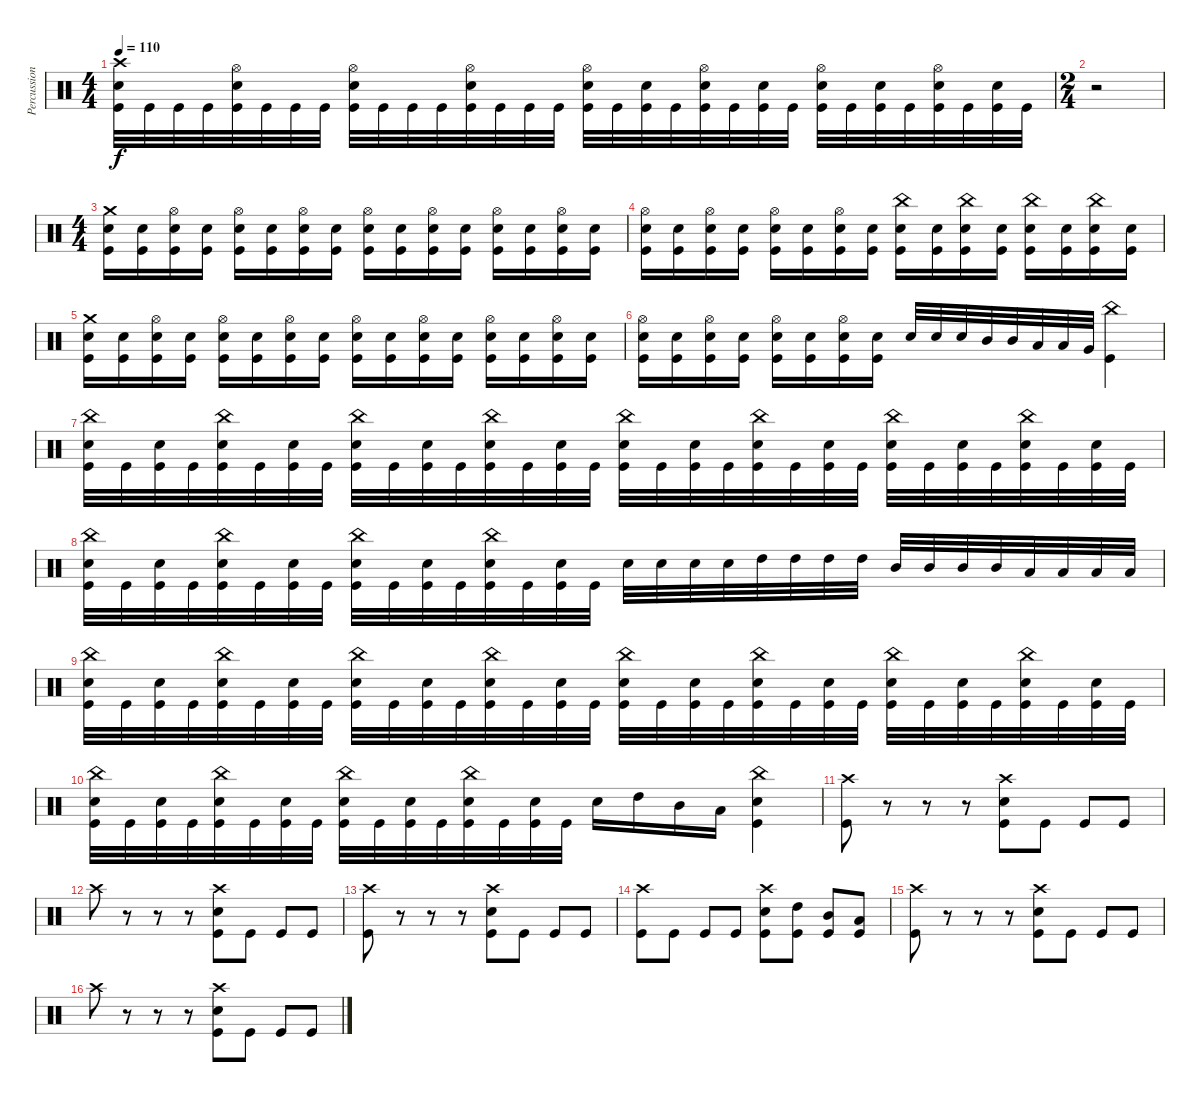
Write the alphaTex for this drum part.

\track ("Percussion" "Percussion") {instrument percussion}
\staff {score}
\articulation defaults
\ts (4 4)
\tempo 110
\clef neutral
\ks c
("Crash high (hit)" "Snare (hit) 2" "Kick (hit)").32{dy f} "Kick (hit)".32 "Kick (hit)".32 "Kick (hit)".32 ("Hi-Hat (open)" "Snare (hit) 2" "Kick (hit)").32 "Kick (hit)".32 "Kick (hit)".32 "Kick (hit)".32 ("Hi-Hat (open)" "Snare (hit) 2" "Kick (hit)").32 "Kick (hit)".32 "Kick (hit)".32 "Kick (hit)".32 ("Hi-Hat (open)" "Snare (hit) 2" "Kick (hit)").32 "Kick (hit)".32 "Kick (hit)".32 "Kick (hit)".32 ("Hi-Hat (open)" "Snare (hit) 2" "Kick (hit)").32 "Kick (hit)".32 ("Snare (hit) 2" "Kick (hit)").32 "Kick (hit)".32 ("Hi-Hat (open)" "Snare (hit) 2" "Kick (hit)").32 "Kick (hit)".32 ("Snare (hit) 2" "Kick (hit)").32 "Kick (hit)".32 ("Hi-Hat (open)" "Snare (hit) 2" "Kick (hit)").32 "Kick (hit)".32 ("Snare (hit) 2" "Kick (hit)").32 "Kick (hit)".32 ("Hi-Hat (open)" "Snare (hit) 2" "Kick (hit)").32 "Kick (hit)".32 ("Snare (hit) 2" "Kick (hit)").32 "Kick (hit)".32 |
\ts (2 4)
r.2 |
\ts (4 4)
("Crash medium (hit)" "Snare (hit) 2" "Kick (hit)").16 ("Snare (hit) 2" "Kick (hit)").16 ("Hi-Hat (open)" "Snare (hit) 2" "Kick (hit)").16 ("Snare (hit) 2" "Kick (hit)").16 ("Hi-Hat (open)" "Snare (hit) 2" "Kick (hit)").16 ("Snare (hit) 2" "Kick (hit)").16 ("Hi-Hat (open)" "Snare (hit) 2" "Kick (hit)").16 ("Snare (hit) 2" "Kick (hit)").16 ("Hi-Hat (open)" "Snare (hit) 2" "Kick (hit)").16 ("Snare (hit) 2" "Kick (hit)").16 ("Hi-Hat (open)" "Snare (hit) 2" "Kick (hit)").16 ("Snare (hit) 2" "Kick (hit)").16 ("Hi-Hat (open)" "Snare (hit) 2" "Kick (hit)").16 ("Snare (hit) 2" "Kick (hit)").16 ("Hi-Hat (open)" "Snare (hit) 2" "Kick (hit)").16 ("Snare (hit) 2" "Kick (hit)").16 |
("Hi-Hat (open)" "Snare (hit) 2" "Kick (hit)").16 ("Snare (hit) 2" "Kick (hit)").16 ("Hi-Hat (open)" "Snare (hit) 2" "Kick (hit)").16 ("Snare (hit) 2" "Kick (hit)").16 ("Hi-Hat (open)" "Snare (hit) 2" "Kick (hit)").16 ("Snare (hit) 2" "Kick (hit)").16 ("Hi-Hat (open)" "Snare (hit) 2" "Kick (hit)").16 ("Snare (hit) 2" "Kick (hit)").16 ("China (hit)" "Snare (hit) 2" "Kick (hit)").16 ("Snare (hit) 2" "Kick (hit)").16 ("China (hit)" "Snare (hit) 2" "Kick (hit)").16 ("Snare (hit) 2" "Kick (hit)").16 ("China (hit)" "Snare (hit) 2" "Kick (hit)").16 ("Snare (hit) 2" "Kick (hit)").16 ("China (hit)" "Snare (hit) 2" "Kick (hit)").16 ("Snare (hit) 2" "Kick (hit)").16 |
("Crash medium (hit)" "Snare (hit) 2" "Kick (hit)").16 ("Snare (hit) 2" "Kick (hit)").16 ("Hi-Hat (open)" "Snare (hit) 2" "Kick (hit)").16 ("Snare (hit) 2" "Kick (hit)").16 ("Hi-Hat (open)" "Snare (hit) 2" "Kick (hit)").16 ("Snare (hit) 2" "Kick (hit)").16 ("Hi-Hat (open)" "Snare (hit) 2" "Kick (hit)").16 ("Snare (hit) 2" "Kick (hit)").16 ("Hi-Hat (open)" "Snare (hit) 2" "Kick (hit)").16 ("Snare (hit) 2" "Kick (hit)").16 ("Hi-Hat (open)" "Snare (hit) 2" "Kick (hit)").16 ("Snare (hit) 2" "Kick (hit)").16 ("Hi-Hat (open)" "Snare (hit) 2" "Kick (hit)").16 ("Snare (hit) 2" "Kick (hit)").16 ("Hi-Hat (open)" "Snare (hit) 2" "Kick (hit)").16 ("Snare (hit) 2" "Kick (hit)").16 |
("Hi-Hat (open)" "Snare (hit) 2" "Kick (hit)").16 ("Snare (hit) 2" "Kick (hit)").16 ("Hi-Hat (open)" "Snare (hit) 2" "Kick (hit)").16 ("Snare (hit) 2" "Kick (hit)").16 ("Hi-Hat (open)" "Snare (hit) 2" "Kick (hit)").16 ("Snare (hit) 2" "Kick (hit)").16 ("Hi-Hat (open)" "Snare (hit) 2" "Kick (hit)").16 ("Snare (hit) 2" "Kick (hit)").16 "Snare (hit) 2".32 "Snare (hit) 2".32 "Snare (hit) 2".32 "Mid Tom (hit)".32 "Mid Tom (hit)".32 "Low Tom (hit)".32 "Low Tom (hit)".32 "Very Low Tom (hit)".32 ("China (hit)" "Kick (hit)").4 |
("China (hit)" "Snare (hit) 2" "Kick (hit)").32 "Kick (hit)".32 ("Snare (hit) 2" "Kick (hit)").32 "Kick (hit)".32 ("China (hit)" "Snare (hit) 2" "Kick (hit)").32 "Kick (hit)".32 ("Snare (hit) 2" "Kick (hit)").32 "Kick (hit)".32 ("China (hit)" "Snare (hit) 2" "Kick (hit)").32 "Kick (hit)".32 ("Snare (hit) 2" "Kick (hit)").32 "Kick (hit)".32 ("China (hit)" "Snare (hit) 2" "Kick (hit)").32 "Kick (hit)".32 ("Snare (hit) 2" "Kick (hit)").32 "Kick (hit)".32 ("China (hit)" "Snare (hit) 2" "Kick (hit)").32 "Kick (hit)".32 ("Snare (hit) 2" "Kick (hit)").32 "Kick (hit)".32 ("China (hit)" "Snare (hit) 2" "Kick (hit)").32 "Kick (hit)".32 ("Snare (hit) 2" "Kick (hit)").32 "Kick (hit)".32 ("China (hit)" "Snare (hit) 2" "Kick (hit)").32 "Kick (hit)".32 ("Snare (hit) 2" "Kick (hit)").32 "Kick (hit)".32 ("China (hit)" "Snare (hit) 2" "Kick (hit)").32 "Kick (hit)".32 ("Snare (hit) 2" "Kick (hit)").32 "Kick (hit)".32 |
("China (hit)" "Snare (hit) 2" "Kick (hit)").32 "Kick (hit)".32 ("Snare (hit) 2" "Kick (hit)").32 "Kick (hit)".32 ("China (hit)" "Snare (hit) 2" "Kick (hit)").32 "Kick (hit)".32 ("Snare (hit) 2" "Kick (hit)").32 "Kick (hit)".32 ("China (hit)" "Snare (hit) 2" "Kick (hit)").32 "Kick (hit)".32 ("Snare (hit) 2" "Kick (hit)").32 "Kick (hit)".32 ("China (hit)" "Snare (hit) 2" "Kick (hit)").32 "Kick (hit)".32 ("Snare (hit) 2" "Kick (hit)").32 "Kick (hit)".32 "Snare (hit) 2".32 "Snare (hit) 2".32 "Snare (hit) 2".32 "Snare (hit) 2".32 "High Tom (hit)".32 "High Tom (hit)".32 "High Tom (hit)".32 "High Tom (hit)".32 "Mid Tom (hit)".32 "Mid Tom (hit)".32 "Mid Tom (hit)".32 "Mid Tom (hit)".32 "Low Tom (hit)".32 "Low Tom (hit)".32 "Low Tom (hit)".32 "Low Tom (hit)".32 |
("China (hit)" "Snare (hit) 2" "Kick (hit)").32 "Kick (hit)".32 ("Snare (hit) 2" "Kick (hit)").32 "Kick (hit)".32 ("China (hit)" "Snare (hit) 2" "Kick (hit)").32 "Kick (hit)".32 ("Snare (hit) 2" "Kick (hit)").32 "Kick (hit)".32 ("China (hit)" "Snare (hit) 2" "Kick (hit)").32 "Kick (hit)".32 ("Snare (hit) 2" "Kick (hit)").32 "Kick (hit)".32 ("China (hit)" "Snare (hit) 2" "Kick (hit)").32 "Kick (hit)".32 ("Snare (hit) 2" "Kick (hit)").32 "Kick (hit)".32 ("China (hit)" "Snare (hit) 2" "Kick (hit)").32 "Kick (hit)".32 ("Snare (hit) 2" "Kick (hit)").32 "Kick (hit)".32 ("China (hit)" "Snare (hit) 2" "Kick (hit)").32 "Kick (hit)".32 ("Snare (hit) 2" "Kick (hit)").32 "Kick (hit)".32 ("China (hit)" "Snare (hit) 2" "Kick (hit)").32 "Kick (hit)".32 ("Snare (hit) 2" "Kick (hit)").32 "Kick (hit)".32 ("China (hit)" "Snare (hit) 2" "Kick (hit)").32 "Kick (hit)".32 ("Snare (hit) 2" "Kick (hit)").32 "Kick (hit)".32 |
("China (hit)" "Snare (hit) 2" "Kick (hit)").32 "Kick (hit)".32 ("Snare (hit) 2" "Kick (hit)").32 "Kick (hit)".32 ("China (hit)" "Snare (hit) 2" "Kick (hit)").32 "Kick (hit)".32 ("Snare (hit) 2" "Kick (hit)").32 "Kick (hit)".32 ("China (hit)" "Snare (hit) 2" "Kick (hit)").32 "Kick (hit)".32 ("Snare (hit) 2" "Kick (hit)").32 "Kick (hit)".32 ("China (hit)" "Snare (hit) 2" "Kick (hit)").32 "Kick (hit)".32 ("Snare (hit) 2" "Kick (hit)").32 "Kick (hit)".32 "Snare (hit) 2".16 "High Tom (hit)".16 "Mid Tom (hit)".16 "Low Tom (hit)".16 ("China (hit)" "Snare (hit) 2" "Kick (hit)").4 |
("Crash high (hit)" "Kick (hit)").8 r.8 r.8 r.8 ("Crash high (hit)" "Snare (hit) 2" "Kick (hit)").8 "Kick (hit)".8 "Kick (hit)".8 "Kick (hit)".8 |
"Crash high (hit)".8 r.8 r.8 r.8 ("Crash high (hit)" "Snare (hit) 2" "Kick (hit)").8 "Kick (hit)".8 "Kick (hit)".8 "Kick (hit)".8 |
("Crash high (hit)" "Kick (hit)").8 r.8 r.8 r.8 ("Crash high (hit)" "Snare (hit) 2" "Kick (hit)").8 "Kick (hit)".8 "Kick (hit)".8 "Kick (hit)".8 |
("Crash high (hit)" "Kick (hit)").8 "Kick (hit)".8 "Kick (hit)".8 "Kick (hit)".8 ("Crash high (hit)" "Snare (hit) 2" "Kick (hit)").8 ("High Tom (hit)" "Kick (hit)").8 ("Mid Tom (hit)" "Kick (hit)").8 ("Low Tom (hit)" "Kick (hit)").8 |
("Crash high (hit)" "Kick (hit)").8 r.8 r.8 r.8 ("Crash high (hit)" "Snare (hit) 2" "Kick (hit)").8 "Kick (hit)".8 "Kick (hit)".8 "Kick (hit)".8 |
"Crash high (hit)".8 r.8 r.8 r.8 ("Crash high (hit)" "Snare (hit) 2" "Kick (hit)").8 "Kick (hit)".8 "Kick (hit)".8 "Kick (hit)".8
